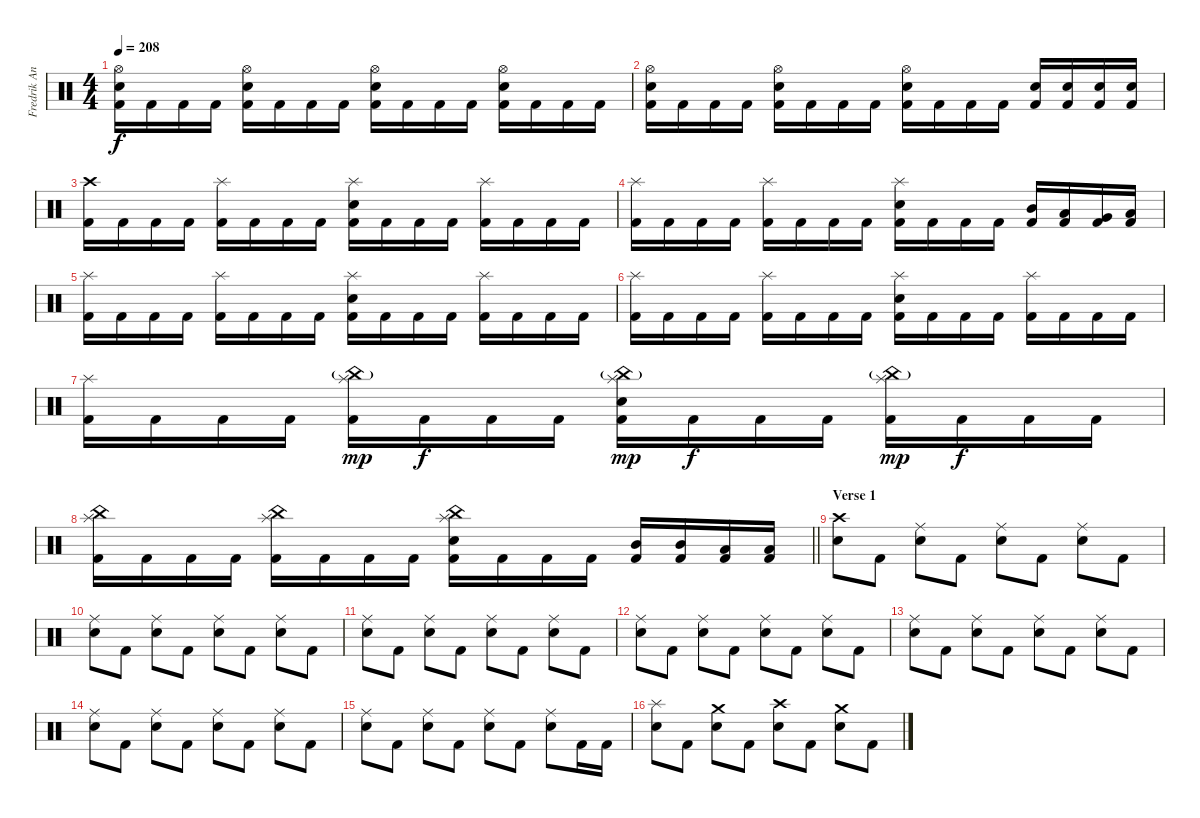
\track ("Fredrik Andersson" "Fredrik An") {instrument percussion}
\staff {score}
\articulation defaults
\ts (4 4)
\tempo 208
\clef neutral
\ks c
("Hi-Hat (open)" "Electric Snare (hit)" "Kick (hit) 2").16{dy f} "Kick (hit) 2".16 "Kick (hit) 2".16 "Kick (hit) 2".16 ("Hi-Hat (open)" "Electric Snare (hit)" "Kick (hit) 2").16 "Kick (hit) 2".16 "Kick (hit) 2".16 "Kick (hit) 2".16 ("Hi-Hat (open)" "Electric Snare (hit)" "Kick (hit) 2").16 "Kick (hit) 2".16 "Kick (hit) 2".16 "Kick (hit) 2".16 ("Hi-Hat (open)" "Electric Snare (hit)" "Kick (hit) 2").16 "Kick (hit) 2".16 "Kick (hit) 2".16 "Kick (hit) 2".16 |
("Hi-Hat (open)" "Electric Snare (hit)" "Kick (hit) 2").16 "Kick (hit) 2".16 "Kick (hit) 2".16 "Kick (hit) 2".16 ("Hi-Hat (open)" "Electric Snare (hit)" "Kick (hit) 2").16 "Kick (hit) 2".16 "Kick (hit) 2".16 "Kick (hit) 2".16 ("Hi-Hat (open)" "Electric Snare (hit)" "Kick (hit) 2").16 "Kick (hit) 2".16 "Kick (hit) 2".16 "Kick (hit) 2".16 ("Electric Snare (hit)" "Kick (hit) 2").16 ("Electric Snare (hit)" "Kick (hit) 2").16 ("Electric Snare (hit)" "Kick (hit) 2").16 ("Electric Snare (hit)" "Kick (hit) 2").16 |
("Crash high (hit)" "Kick (hit) 2").16 "Kick (hit) 2".16 "Kick (hit) 2".16 "Kick (hit) 2".16 ("Splash (hit)" "Kick (hit) 2").16 "Kick (hit) 2".16 "Kick (hit) 2".16 "Kick (hit) 2".16 ("Splash (hit)" "Electric Snare (hit)" "Kick (hit) 2").16 "Kick (hit) 2".16 "Kick (hit) 2".16 "Kick (hit) 2".16 ("Splash (hit)" "Kick (hit) 2").16 "Kick (hit) 2".16 "Kick (hit) 2".16 "Kick (hit) 2".16 |
("Splash (hit)" "Kick (hit) 2").16 "Kick (hit) 2".16 "Kick (hit) 2".16 "Kick (hit) 2".16 ("Splash (hit)" "Kick (hit) 2").16 "Kick (hit) 2".16 "Kick (hit) 2".16 "Kick (hit) 2".16 ("Splash (hit)" "Electric Snare (hit)" "Kick (hit) 2").16 "Kick (hit) 2".16 "Kick (hit) 2".16 "Kick (hit) 2".16 ("Mid Tom (hit)" "Kick (hit) 2").16 ("Low Tom (hit)" "Kick (hit) 2").16 ("Very Low Tom (hit)" "Kick (hit) 2").16 ("Low Floor Tom (hit)" "Kick (hit) 2").16 |
("Splash (hit)" "Kick (hit) 2").16 "Kick (hit) 2".16 "Kick (hit) 2".16 "Kick (hit) 2".16 ("Splash (hit)" "Kick (hit) 2").16 "Kick (hit) 2".16 "Kick (hit) 2".16 "Kick (hit) 2".16 ("Splash (hit)" "Electric Snare (hit)" "Kick (hit) 2").16 "Kick (hit) 2".16 "Kick (hit) 2".16 "Kick (hit) 2".16 ("Splash (hit)" "Kick (hit) 2").16 "Kick (hit) 2".16 "Kick (hit) 2".16 "Kick (hit) 2".16 |
("Splash (hit)" "Kick (hit) 2").16 "Kick (hit) 2".16 "Kick (hit) 2".16 "Kick (hit) 2".16 ("Splash (hit)" "Kick (hit) 2").16 "Kick (hit) 2".16 "Kick (hit) 2".16 "Kick (hit) 2".16 ("Splash (hit)" "Electric Snare (hit)" "Kick (hit) 2").16 "Kick (hit) 2".16 "Kick (hit) 2".16 "Kick (hit) 2".16 ("Splash (hit)" "Kick (hit) 2").16 "Kick (hit) 2".16 "Kick (hit) 2".16 "Kick (hit) 2".16 |
("Splash (hit)" "Kick (hit) 2").16 "Kick (hit) 2".16 "Kick (hit) 2".16 "Kick (hit) 2".16 ("Splash (hit)" "China (hit)"{g} "Kick (hit) 2").16{dy mp} "Kick (hit) 2".16{dy f} "Kick (hit) 2".16 "Kick (hit) 2".16 ("Splash (hit)" "Electric Snare (hit)" "China (hit)"{g} "Kick (hit) 2").16{dy mp} "Kick (hit) 2".16{dy f} "Kick (hit) 2".16 "Kick (hit) 2".16 ("Splash (hit)" "China (hit)"{g} "Kick (hit) 2").16{dy mp} "Kick (hit) 2".16{dy f} "Kick (hit) 2".16 "Kick (hit) 2".16 |
\barLineRight lightlight
("Splash (hit)" "China (hit)" "Kick (hit) 2").16 "Kick (hit) 2".16 "Kick (hit) 2".16 "Kick (hit) 2".16 ("Splash (hit)" "China (hit)" "Kick (hit) 2").16 "Kick (hit) 2".16 "Kick (hit) 2".16 "Kick (hit) 2".16 ("Splash (hit)" "Electric Snare (hit)" "China (hit)" "Kick (hit) 2").16 "Kick (hit) 2".16 "Kick (hit) 2".16 "Kick (hit) 2".16 ("Mid Tom (hit)" "Kick (hit) 2").16 ("Mid Tom (hit)" "Kick (hit) 2").16 ("Low Tom (hit)" "Kick (hit) 2").16 ("Low Tom (hit)" "Kick (hit) 2").16 |
\section ("" "Verse 1")
("Crash high (hit)" "Electric Snare (hit)").8 "Kick (hit) 2".8 ("Ride (middle)" "Electric Snare (hit)").8 "Kick (hit) 2".8 ("Ride (middle)" "Electric Snare (hit)").8 "Kick (hit) 2".8 ("Ride (middle)" "Electric Snare (hit)").8 "Kick (hit) 2".8 |
("Ride (middle)" "Electric Snare (hit)").8 "Kick (hit) 2".8 ("Ride (middle)" "Electric Snare (hit)").8 "Kick (hit) 2".8 ("Ride (middle)" "Electric Snare (hit)").8 "Kick (hit) 2".8 ("Ride (middle)" "Electric Snare (hit)").8 "Kick (hit) 2".8 |
("Ride (middle)" "Electric Snare (hit)").8 "Kick (hit) 2".8 ("Ride (middle)" "Electric Snare (hit)").8 "Kick (hit) 2".8 ("Ride (middle)" "Electric Snare (hit)").8 "Kick (hit) 2".8 ("Ride (middle)" "Electric Snare (hit)").8 "Kick (hit) 2".8 |
("Ride (middle)" "Electric Snare (hit)").8 "Kick (hit) 2".8 ("Ride (middle)" "Electric Snare (hit)").8 "Kick (hit) 2".8 ("Ride (middle)" "Electric Snare (hit)").8 "Kick (hit) 2".8 ("Ride (middle)" "Electric Snare (hit)").8 "Kick (hit) 2".8 |
("Ride (middle)" "Electric Snare (hit)").8 "Kick (hit) 2".8 ("Ride (middle)" "Electric Snare (hit)").8 "Kick (hit) 2".8 ("Ride (middle)" "Electric Snare (hit)").8 "Kick (hit) 2".8 ("Ride (middle)" "Electric Snare (hit)").8 "Kick (hit) 2".8 |
("Ride (middle)" "Electric Snare (hit)").8 "Kick (hit) 2".8 ("Ride (middle)" "Electric Snare (hit)").8 "Kick (hit) 2".8 ("Ride (middle)" "Electric Snare (hit)").8 "Kick (hit) 2".8 ("Ride (middle)" "Electric Snare (hit)").8 "Kick (hit) 2".8 |
("Ride (middle)" "Electric Snare (hit)").8 "Kick (hit) 2".8 ("Ride (middle)" "Electric Snare (hit)").8 "Kick (hit) 2".8 ("Ride (middle)" "Electric Snare (hit)").8 "Kick (hit) 2".8 ("Ride (middle)" "Electric Snare (hit)").8 "Kick (hit) 2".16 "Kick (hit) 2".16 |
("Splash (hit)" "Electric Snare (hit)").8 "Kick (hit) 2".8 ("Crash medium (hit)" "Electric Snare (hit)").8 "Kick (hit) 2".8 ("Crash high (hit)" "Electric Snare (hit)").8 "Kick (hit) 2".8 ("Crash medium (hit)" "Electric Snare (hit)").8 "Kick (hit) 2".8
